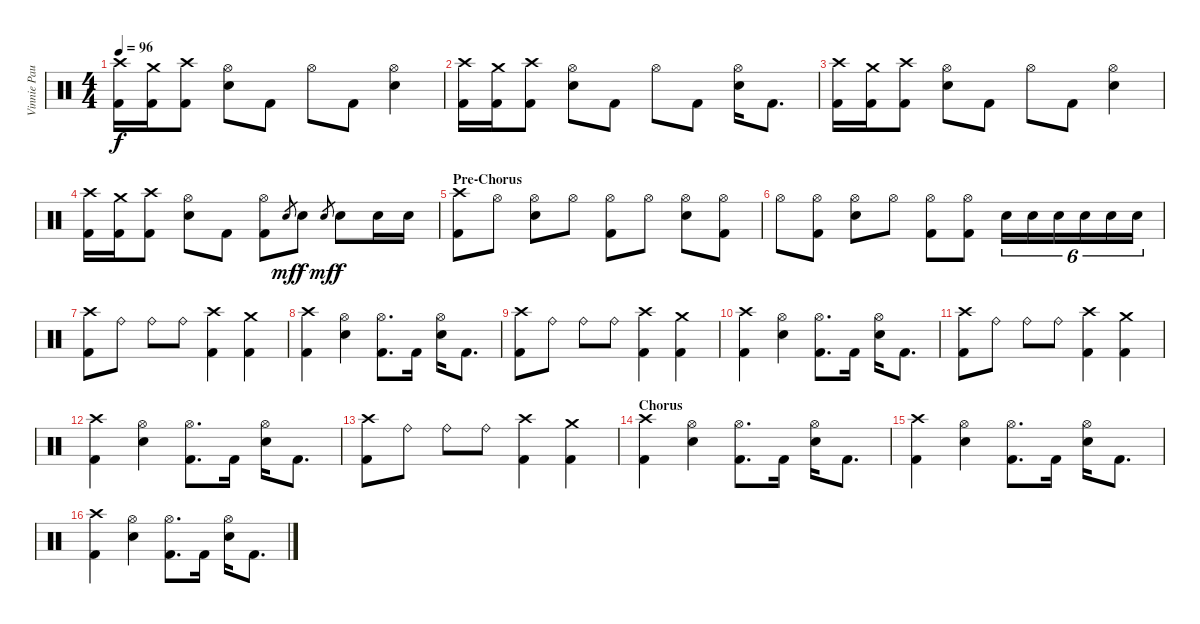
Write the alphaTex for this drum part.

\track ("Vinnie Paul" "Vinnie Pau") {instrument percussion}
\staff {score}
\articulation defaults
\ts (4 4)
\tempo 96
\clef neutral
\ks c
("Crash high (hit)" "Kick (hit) 2").16{dy f} ("Crash medium (hit)" "Kick (hit) 2").16 ("Crash high (hit)" "Kick (hit) 2").8 ("Snare (hit) 2" "Hi-Hat (open)").8 "Kick (hit) 2".8 "Hi-Hat (open)".8 "Kick (hit) 2".8 ("Snare (hit) 2" "Hi-Hat (open)").4 |
("Crash high (hit)" "Kick (hit) 2").16 ("Crash medium (hit)" "Kick (hit) 2").16 ("Crash high (hit)" "Kick (hit) 2").8 ("Snare (hit) 2" "Hi-Hat (open)").8 "Kick (hit) 2".8 "Hi-Hat (open)".8 "Kick (hit) 2".8 ("Snare (hit) 2" "Hi-Hat (open)").16 "Kick (hit) 2".8{d} |
("Crash high (hit)" "Kick (hit) 2").16 ("Crash medium (hit)" "Kick (hit) 2").16 ("Crash high (hit)" "Kick (hit) 2").8 ("Snare (hit) 2" "Hi-Hat (open)").8 "Kick (hit) 2".8 "Hi-Hat (open)".8 "Kick (hit) 2".8 ("Snare (hit) 2" "Hi-Hat (open)").4 |
("Crash high (hit)" "Kick (hit) 2").16 ("Crash medium (hit)" "Kick (hit) 2").16 ("Crash high (hit)" "Kick (hit) 2").8 ("Snare (hit) 2" "Hi-Hat (open)").8 "Kick (hit) 2".8 ("Kick (hit) 2" "Hi-Hat (open)").8 "Snare (hit)".8{gr dy mf} "Snare (hit) 2".8{dy f} "Snare (hit)".8{gr dy mf} "Snare (hit) 2".8{dy f} "Snare (hit) 2".16 "Snare (hit) 2".16 |
\section ("" "Pre-Chorus")
("Crash high (hit)" "Kick (hit) 2").8 "Hi-Hat (open)".8 ("Snare (hit) 2" "Hi-Hat (open)").8 "Hi-Hat (open)".8 ("Kick (hit) 2" "Hi-Hat (open)").8 "Hi-Hat (open)".8 ("Snare (hit) 2" "Hi-Hat (open)").8 ("Kick (hit) 2" "Hi-Hat (open)").8 |
"Hi-Hat (open)".8 ("Kick (hit) 2" "Hi-Hat (open)").8 ("Snare (hit) 2" "Hi-Hat (open)").8 "Hi-Hat (open)".8 ("Kick (hit) 2" "Hi-Hat (open)").8 ("Kick (hit) 2" "Hi-Hat (open)").8 "Snare (hit) 2".16{tu (6 4)} "Snare (hit) 2".16{tu (6 4)} "Snare (hit) 2".16{tu (6 4)} "Snare (hit) 2".16{tu (6 4)} "Snare (hit) 2".16{tu (6 4)} "Snare (hit) 2".16{tu (6 4)} |
("Crash high (hit)" "Kick (hit) 2").8 "Ride (bell)".8 "Ride (bell)".8 "Ride (bell)".8 ("Crash high (hit)" "Kick (hit) 2").4 ("Crash medium (hit)" "Kick (hit) 2").4 |
("Crash high (hit)" "Kick (hit) 2").4 ("Snare (hit) 2" "Hi-Hat (open)").4 ("Kick (hit) 2" "Hi-Hat (open)").8{d} "Kick (hit) 2".16 ("Snare (hit) 2" "Hi-Hat (open)").16 "Kick (hit) 2".8{d} |
("Crash high (hit)" "Kick (hit) 2").8 "Ride (bell)".8 "Ride (bell)".8 "Ride (bell)".8 ("Crash high (hit)" "Kick (hit) 2").4 ("Crash medium (hit)" "Kick (hit) 2").4 |
("Crash high (hit)" "Kick (hit) 2").4 ("Snare (hit) 2" "Hi-Hat (open)").4 ("Kick (hit) 2" "Hi-Hat (open)").8{d} "Kick (hit) 2".16 ("Snare (hit) 2" "Hi-Hat (open)").16 "Kick (hit) 2".8{d} |
("Crash high (hit)" "Kick (hit) 2").8 "Ride (bell)".8 "Ride (bell)".8 "Ride (bell)".8 ("Crash high (hit)" "Kick (hit) 2").4 ("Crash medium (hit)" "Kick (hit) 2").4 |
("Crash high (hit)" "Kick (hit) 2").4 ("Snare (hit) 2" "Hi-Hat (open)").4 ("Kick (hit) 2" "Hi-Hat (open)").8{d} "Kick (hit) 2".16 ("Snare (hit) 2" "Hi-Hat (open)").16 "Kick (hit) 2".8{d} |
("Crash high (hit)" "Kick (hit) 2").8 "Ride (bell)".8 "Ride (bell)".8 "Ride (bell)".8 ("Crash high (hit)" "Kick (hit) 2").4 ("Crash medium (hit)" "Kick (hit) 2").4 |
\section ("" "Chorus")
("Crash high (hit)" "Kick (hit) 2").4 ("Snare (hit) 2" "Hi-Hat (open)").4 ("Kick (hit) 2" "Hi-Hat (open)").8{d} "Kick (hit) 2".16 ("Snare (hit) 2" "Hi-Hat (open)").16 "Kick (hit) 2".8{d} |
("Crash high (hit)" "Kick (hit) 2").4 ("Snare (hit) 2" "Hi-Hat (open)").4 ("Kick (hit) 2" "Hi-Hat (open)").8{d} "Kick (hit) 2".16 ("Snare (hit) 2" "Hi-Hat (open)").16 "Kick (hit) 2".8{d} |
("Crash high (hit)" "Kick (hit) 2").4 ("Snare (hit) 2" "Hi-Hat (open)").4 ("Kick (hit) 2" "Hi-Hat (open)").8{d} "Kick (hit) 2".16 ("Snare (hit) 2" "Hi-Hat (open)").16 "Kick (hit) 2".8{d}
